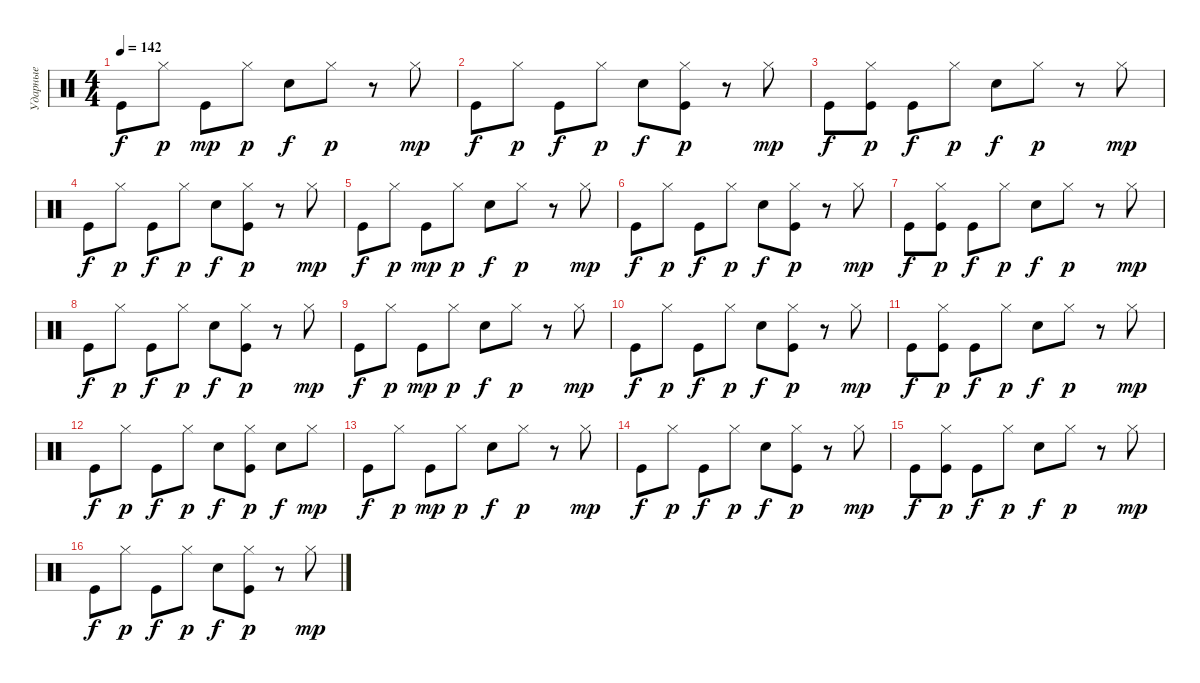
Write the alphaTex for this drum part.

\track ("Ударные" "Ударные") {instrument percussion}
\staff {score}
\articulation defaults
\ts (4 4)
\tempo 142
\clef neutral
\ks c "Kick (hit)".8{dy f} "Hi-Hat (closed)".8{dy p} "Kick (hit)".8{dy mp} "Hi-Hat (closed)".8{dy p} "Snare (hit) 2".8{dy f} "Hi-Hat (closed)".8{dy p}
r.8 "Hi-Hat (closed)".8{dy mp} |
"Kick (hit)".8{dy f} "Hi-Hat (closed)".8{dy p} "Kick (hit)".8{dy f} "Hi-Hat (closed)".8{dy p} "Snare (hit) 2".8{dy f} ("Kick (hit)" "Hi-Hat (closed)").8{dy p} r.8 "Hi-Hat (closed)".8{dy mp} |
"Kick (hit)".8{dy f} ("Kick (hit)" "Hi-Hat (closed)").8{dy p} "Kick (hit)".8{dy f} "Hi-Hat (closed)".8{dy p} "Snare (hit) 2".8{dy f} "Hi-Hat (closed)".8{dy p} r.8 "Hi-Hat (closed)".8{dy mp} |
"Kick (hit)".8{dy f} "Hi-Hat (closed)".8{dy p} "Kick (hit)".8{dy f} "Hi-Hat (closed)".8{dy p} "Snare (hit) 2".8{dy f} ("Kick (hit)" "Hi-Hat (closed)").8{dy p} r.8 "Hi-Hat (closed)".8{dy mp} |
"Kick (hit)".8{dy f} "Hi-Hat (closed)".8{dy p} "Kick (hit)".8{dy mp} "Hi-Hat (closed)".8{dy p} "Snare (hit) 2".8{dy f} "Hi-Hat (closed)".8{dy p} r.8 "Hi-Hat (closed)".8{dy mp} |
"Kick (hit)".8{dy f} "Hi-Hat (closed)".8{dy p} "Kick (hit)".8{dy f} "Hi-Hat (closed)".8{dy p} "Snare (hit) 2".8{dy f} ("Kick (hit)" "Hi-Hat (closed)").8{dy p} r.8 "Hi-Hat (closed)".8{dy mp} |
"Kick (hit)".8{dy f} ("Kick (hit)" "Hi-Hat (closed)").8{dy p} "Kick (hit)".8{dy f} "Hi-Hat (closed)".8{dy p} "Snare (hit) 2".8{dy f} "Hi-Hat (closed)".8{dy p} r.8 "Hi-Hat (closed)".8{dy mp} |
"Kick (hit)".8{dy f} "Hi-Hat (closed)".8{dy p} "Kick (hit)".8{dy f} "Hi-Hat (closed)".8{dy p} "Snare (hit) 2".8{dy f} ("Kick (hit)" "Hi-Hat (closed)").8{dy p} r.8 "Hi-Hat (closed)".8{dy mp} |
"Kick (hit)".8{dy f} "Hi-Hat (closed)".8{dy p} "Kick (hit)".8{dy mp} "Hi-Hat (closed)".8{dy p} "Snare (hit) 2".8{dy f} "Hi-Hat (closed)".8{dy p} r.8 "Hi-Hat (closed)".8{dy mp} |
"Kick (hit)".8{dy f} "Hi-Hat (closed)".8{dy p} "Kick (hit)".8{dy f} "Hi-Hat (closed)".8{dy p} "Snare (hit) 2".8{dy f} ("Kick (hit)" "Hi-Hat (closed)").8{dy p} r.8 "Hi-Hat (closed)".8{dy mp} |
"Kick (hit)".8{dy f} ("Kick (hit)" "Hi-Hat (closed)").8{dy p} "Kick (hit)".8{dy f} "Hi-Hat (closed)".8{dy p} "Snare (hit) 2".8{dy f} "Hi-Hat (closed)".8{dy p} r.8 "Hi-Hat (closed)".8{dy mp} |
"Kick (hit)".8{dy f} "Hi-Hat (closed)".8{dy p} "Kick (hit)".8{dy f} "Hi-Hat (closed)".8{dy p} "Electric Snare (hit)".8{dy f} ("Kick (hit)" "Hi-Hat (closed)").8{dy p} "Electric Snare (hit)".8{dy f} "Hi-Hat (closed)".8{dy mp} |
"Kick (hit)".8{dy f} "Hi-Hat (closed)".8{dy p} "Kick (hit)".8{dy mp} "Hi-Hat (closed)".8{dy p} "Snare (hit) 2".8{dy f} "Hi-Hat (closed)".8{dy p} r.8 "Hi-Hat (closed)".8{dy mp} |
"Kick (hit)".8{dy f} "Hi-Hat (closed)".8{dy p} "Kick (hit)".8{dy f} "Hi-Hat (closed)".8{dy p} "Snare (hit) 2".8{dy f} ("Kick (hit)" "Hi-Hat (closed)").8{dy p} r.8 "Hi-Hat (closed)".8{dy mp} |
"Kick (hit)".8{dy f} ("Kick (hit)" "Hi-Hat (closed)").8{dy p} "Kick (hit)".8{dy f} "Hi-Hat (closed)".8{dy p} "Snare (hit) 2".8{dy f} "Hi-Hat (closed)".8{dy p} r.8 "Hi-Hat (closed)".8{dy mp} |
"Kick (hit)".8{dy f} "Hi-Hat (closed)".8{dy p} "Kick (hit)".8{dy f} "Hi-Hat (closed)".8{dy p} "Snare (hit) 2".8{dy f} ("Kick (hit)" "Hi-Hat (closed)").8{dy p} r.8 "Hi-Hat (closed)".8{dy mp}
